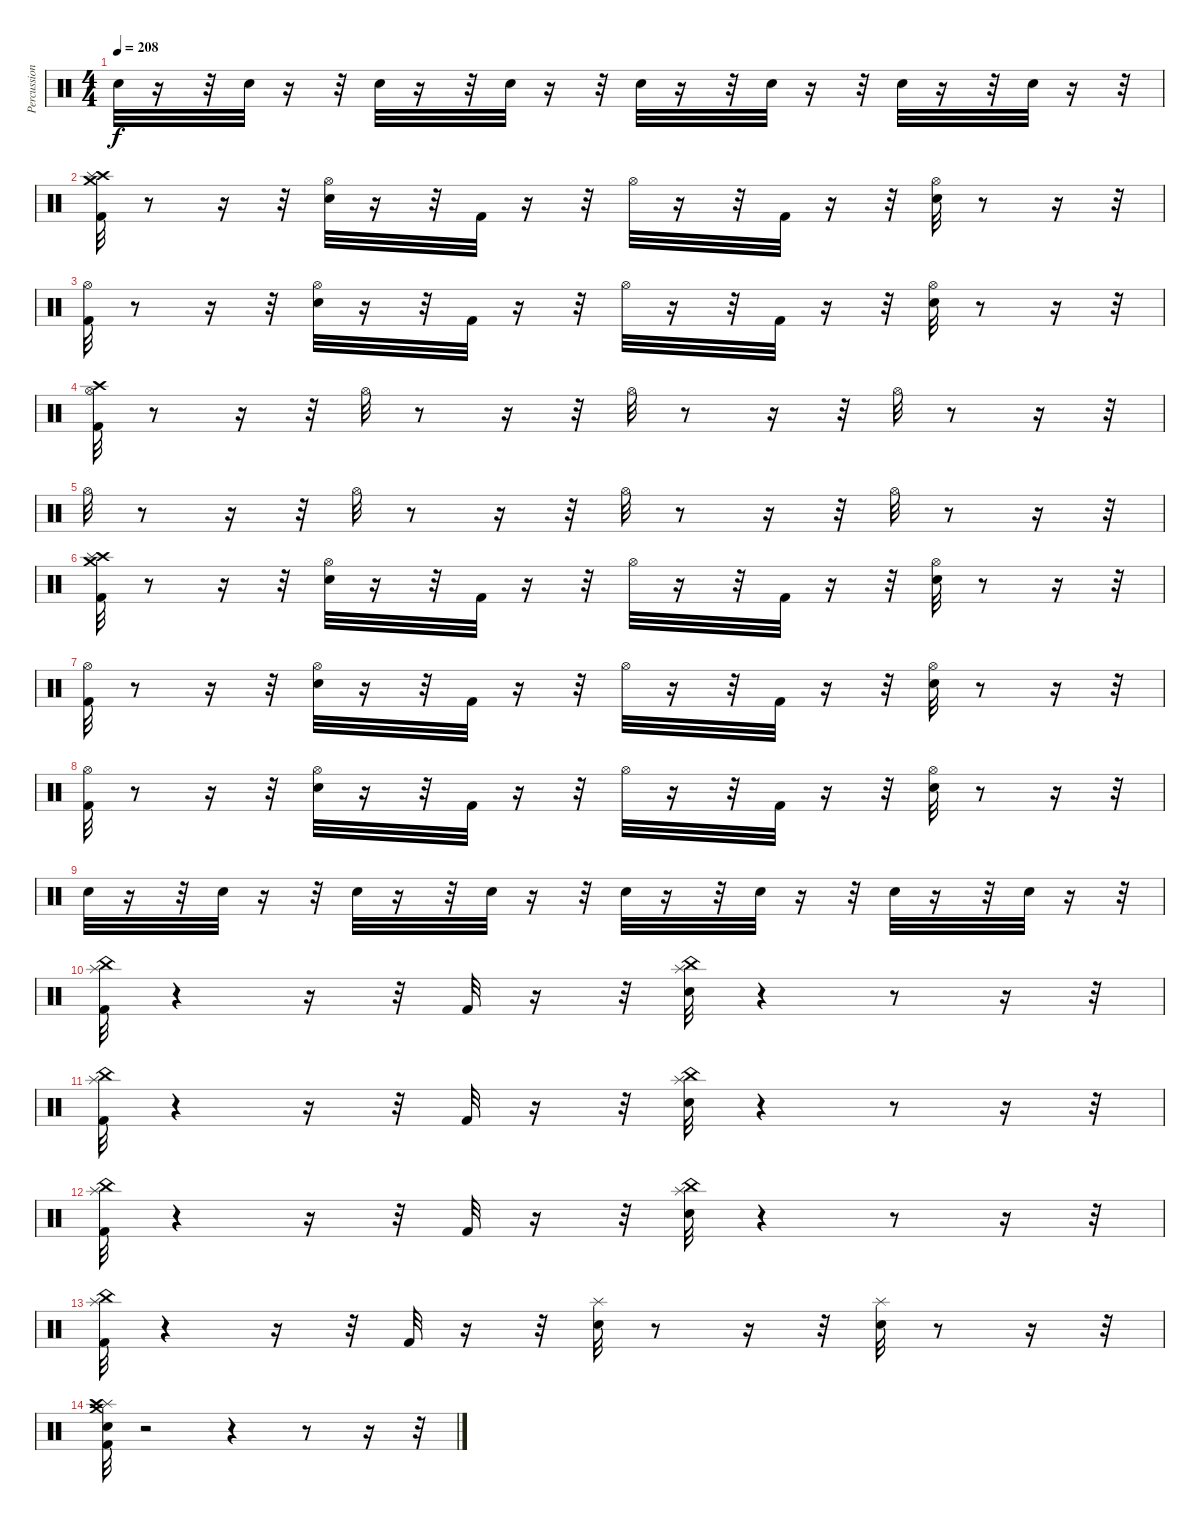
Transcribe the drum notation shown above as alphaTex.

\track ("Percussion" "Percussion") {instrument percussion}
\staff {score}
\articulation defaults
\ts (4 4)
\tempo 208
\clef neutral
\ks c "Snare (hit) 2".32{dy f}
r.16 r.32 "Snare (hit) 2".32 r.16 r.32 "Snare (hit) 2".32 r.16 r.32 "Snare (hit) 2".32 r.16 r.32 "Snare (hit) 2".32 r.16 r.32 "Snare (hit) 2".32 r.16 r.32 "Snare (hit) 2".32 r.16 r.32 "Snare (hit) 2".32 r.16 r.32 |
("Kick (hit) 2" "Crash high (hit)" "Crash medium (hit)" "Splash (hit)").32 r.8 r.16 r.32 ("Snare (hit) 2" "Hi-Hat (open)").32 r.16 r.32 "Kick (hit) 2".32 r.16 r.32 "Hi-Hat (open)".32 r.16 r.32 "Kick (hit) 2".32 r.16 r.32 ("Snare (hit) 2" "Hi-Hat (open)").32 r.8 r.16 r.32 |
("Kick (hit) 2" "Hi-Hat (open)").32 r.8 r.16 r.32 ("Snare (hit) 2" "Hi-Hat (open)").32 r.16 r.32 "Kick (hit) 2".32 r.16 r.32 "Hi-Hat (open)".32 r.16 r.32 "Kick (hit) 2".32 r.16 r.32 ("Snare (hit) 2" "Hi-Hat (open)").32 r.8 r.16 r.32 |
("Hi-Hat (open)" "Crash high (hit)" "Kick (hit) 2").32 r.8 r.16 r.32 "Hi-Hat (open)".32 r.8 r.16 r.32 "Hi-Hat (open)".32 r.8 r.16 r.32 "Hi-Hat (open)".32 r.8 r.16 r.32 |
"Hi-Hat (open)".32 r.8 r.16 r.32 "Hi-Hat (open)".32 r.8 r.16 r.32 "Hi-Hat (open)".32 r.8 r.16 r.32 "Hi-Hat (open)".32 r.8 r.16 r.32 |
("Kick (hit) 2" "Crash high (hit)" "Crash medium (hit)" "Splash (hit)").32 r.8 r.16 r.32 ("Snare (hit) 2" "Hi-Hat (open)").32 r.16 r.32 "Kick (hit) 2".32 r.16 r.32 "Hi-Hat (open)".32 r.16 r.32 "Kick (hit) 2".32 r.16 r.32 ("Snare (hit) 2" "Hi-Hat (open)").32 r.8 r.16 r.32 |
("Kick (hit) 2" "Hi-Hat (open)").32 r.8 r.16 r.32 ("Snare (hit) 2" "Hi-Hat (open)").32 r.16 r.32 "Kick (hit) 2".32 r.16 r.32 "Hi-Hat (open)".32 r.16 r.32 "Kick (hit) 2".32 r.16 r.32 ("Snare (hit) 2" "Hi-Hat (open)").32 r.8 r.16 r.32 |
("Kick (hit) 2" "Hi-Hat (open)").32 r.8 r.16 r.32 ("Snare (hit) 2" "Hi-Hat (open)").32 r.16 r.32 "Kick (hit) 2".32 r.16 r.32 "Hi-Hat (open)".32 r.16 r.32 "Kick (hit) 2".32 r.16 r.32 ("Snare (hit) 2" "Hi-Hat (open)").32 r.8 r.16 r.32 |
"Snare (hit) 2".32 r.16 r.32 "Snare (hit) 2".32 r.16 r.32 "Snare (hit) 2".32 r.16 r.32 "Snare (hit) 2".32 r.16 r.32 "Snare (hit) 2".32 r.16 r.32 "Snare (hit) 2".32 r.16 r.32 "Snare (hit) 2".32 r.16 r.32 "Snare (hit) 2".32 r.16 r.32 |
("Kick (hit) 2" "China (hit)" "Splash (hit)").32 r.4 r.16 r.32 "Kick (hit) 2".32 r.16 r.32 ("Snare (hit) 2" "China (hit)" "Splash (hit)").32 r.4 r.8 r.16 r.32 |
("Kick (hit) 2" "China (hit)" "Splash (hit)").32 r.4 r.16 r.32 "Kick (hit) 2".32 r.16 r.32 ("Snare (hit) 2" "China (hit)" "Splash (hit)").32 r.4 r.8 r.16 r.32 |
("Kick (hit) 2" "China (hit)" "Splash (hit)").32 r.4 r.16 r.32 "Kick (hit) 2".32 r.16 r.32 ("Snare (hit) 2" "China (hit)" "Splash (hit)").32 r.4 r.8 r.16 r.32 |
("Kick (hit) 2" "China (hit)" "Splash (hit)").32 r.4 r.16 r.32 "Kick (hit) 2".32 r.16 r.32 ("Snare (hit) 2" "Splash (hit)").32 r.8 r.16 r.32 ("Splash (hit)" "Snare (hit) 2").32 r.8 r.16 r.32 |
("Splash (hit)" "Crash medium (hit)" "Snare (hit) 2" "Kick (hit) 2" "Crash high (hit)").32 r.2 r.4 r.8 r.16 r.32
